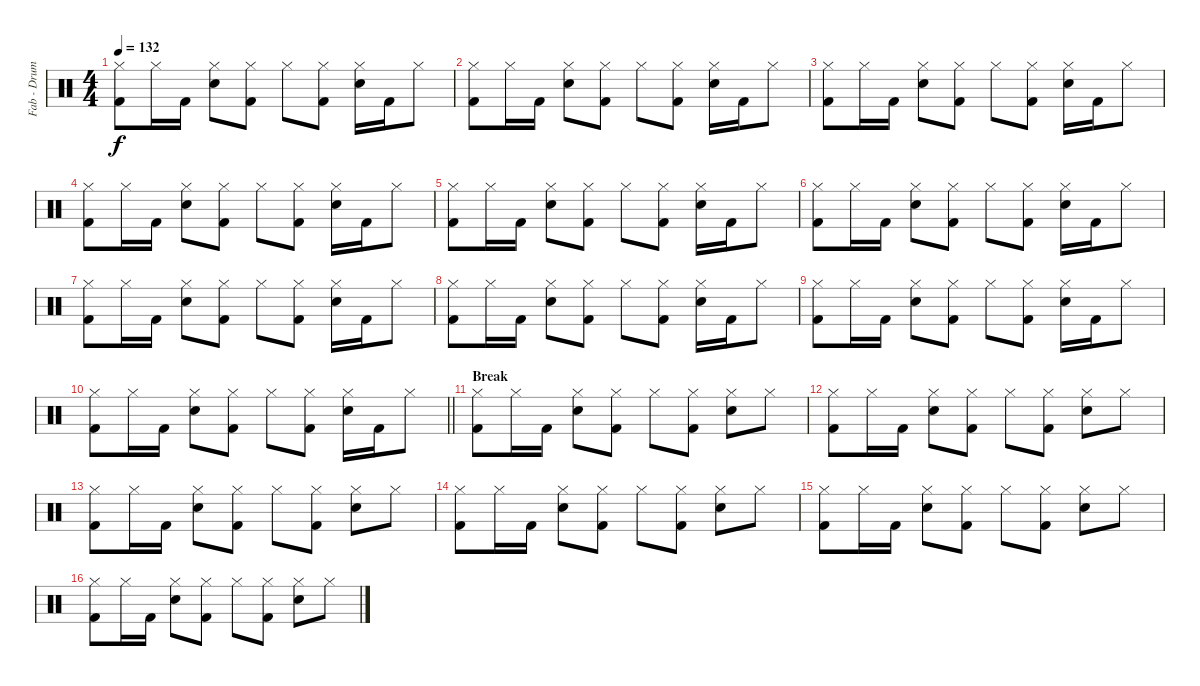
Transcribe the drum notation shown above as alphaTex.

\track ("Fab - Drums MIDI" "Fab - Drum") {instrument percussion}
\staff {score}
\articulation defaults
\ts (4 4)
\tempo 132
\clef neutral
\ks c
("Hi-Hat (closed)" "Kick (hit) 2").8{dy f} "Hi-Hat (closed)".16 "Kick (hit) 2".16 ("Hi-Hat (closed)" "Snare (hit) 2").8 ("Hi-Hat (closed)" "Kick (hit) 2").8 "Hi-Hat (closed)".8 ("Hi-Hat (closed)" "Kick (hit) 2").8 ("Hi-Hat (closed)" "Snare (hit) 2").16 "Kick (hit) 2".16 "Hi-Hat (closed)".8 |
("Hi-Hat (closed)" "Kick (hit) 2").8 "Hi-Hat (closed)".16 "Kick (hit) 2".16 ("Hi-Hat (closed)" "Snare (hit) 2").8 ("Hi-Hat (closed)" "Kick (hit) 2").8 "Hi-Hat (closed)".8 ("Hi-Hat (closed)" "Kick (hit) 2").8 ("Hi-Hat (closed)" "Snare (hit) 2").16 "Kick (hit) 2".16 "Hi-Hat (closed)".8 |
("Hi-Hat (closed)" "Kick (hit) 2").8 "Hi-Hat (closed)".16 "Kick (hit) 2".16 ("Hi-Hat (closed)" "Snare (hit) 2").8 ("Hi-Hat (closed)" "Kick (hit) 2").8 "Hi-Hat (closed)".8 ("Hi-Hat (closed)" "Kick (hit) 2").8 ("Hi-Hat (closed)" "Snare (hit) 2").16 "Kick (hit) 2".16 "Hi-Hat (closed)".8 |
("Hi-Hat (closed)" "Kick (hit) 2").8 "Hi-Hat (closed)".16 "Kick (hit) 2".16 ("Hi-Hat (closed)" "Snare (hit) 2").8 ("Hi-Hat (closed)" "Kick (hit) 2").8 "Hi-Hat (closed)".8 ("Hi-Hat (closed)" "Kick (hit) 2").8 ("Hi-Hat (closed)" "Snare (hit) 2").16 "Kick (hit) 2".16 "Hi-Hat (closed)".8 |
("Hi-Hat (closed)" "Kick (hit) 2").8 "Hi-Hat (closed)".16 "Kick (hit) 2".16 ("Hi-Hat (closed)" "Snare (hit) 2").8 ("Hi-Hat (closed)" "Kick (hit) 2").8 "Hi-Hat (closed)".8 ("Hi-Hat (closed)" "Kick (hit) 2").8 ("Hi-Hat (closed)" "Snare (hit) 2").16 "Kick (hit) 2".16 "Hi-Hat (closed)".8 |
("Hi-Hat (closed)" "Kick (hit) 2").8 "Hi-Hat (closed)".16 "Kick (hit) 2".16 ("Hi-Hat (closed)" "Snare (hit) 2").8 ("Hi-Hat (closed)" "Kick (hit) 2").8 "Hi-Hat (closed)".8 ("Hi-Hat (closed)" "Kick (hit) 2").8 ("Hi-Hat (closed)" "Snare (hit) 2").16 "Kick (hit) 2".16 "Hi-Hat (closed)".8 |
("Hi-Hat (closed)" "Kick (hit) 2").8 "Hi-Hat (closed)".16 "Kick (hit) 2".16 ("Hi-Hat (closed)" "Snare (hit) 2").8 ("Hi-Hat (closed)" "Kick (hit) 2").8 "Hi-Hat (closed)".8 ("Hi-Hat (closed)" "Kick (hit) 2").8 ("Hi-Hat (closed)" "Snare (hit) 2").16 "Kick (hit) 2".16 "Hi-Hat (closed)".8 |
("Hi-Hat (closed)" "Kick (hit) 2").8 "Hi-Hat (closed)".16 "Kick (hit) 2".16 ("Hi-Hat (closed)" "Snare (hit) 2").8 ("Hi-Hat (closed)" "Kick (hit) 2").8 "Hi-Hat (closed)".8 ("Hi-Hat (closed)" "Kick (hit) 2").8 ("Hi-Hat (closed)" "Snare (hit) 2").16 "Kick (hit) 2".16 "Hi-Hat (closed)".8 |
("Hi-Hat (closed)" "Kick (hit) 2").8 "Hi-Hat (closed)".16 "Kick (hit) 2".16 ("Hi-Hat (closed)" "Snare (hit) 2").8 ("Hi-Hat (closed)" "Kick (hit) 2").8 "Hi-Hat (closed)".8 ("Hi-Hat (closed)" "Kick (hit) 2").8 ("Hi-Hat (closed)" "Snare (hit) 2").16 "Kick (hit) 2".16 "Hi-Hat (closed)".8 |
\barLineRight lightlight
("Hi-Hat (closed)" "Kick (hit) 2").8 "Hi-Hat (closed)".16 "Kick (hit) 2".16 ("Hi-Hat (closed)" "Snare (hit) 2").8 ("Hi-Hat (closed)" "Kick (hit) 2").8 "Hi-Hat (closed)".8 ("Hi-Hat (closed)" "Kick (hit) 2").8 ("Hi-Hat (closed)" "Snare (hit) 2").16 "Kick (hit) 2".16 "Hi-Hat (closed)".8 |
\section ("" "Break")
("Hi-Hat (closed)" "Kick (hit) 2").8 "Hi-Hat (closed)".16 "Kick (hit) 2".16 ("Hi-Hat (closed)" "Snare (hit) 2").8 ("Hi-Hat (closed)" "Kick (hit) 2").8 "Hi-Hat (closed)".8 ("Hi-Hat (closed)" "Kick (hit) 2").8 ("Hi-Hat (closed)" "Snare (hit) 2").8 "Hi-Hat (closed)".8 |
("Hi-Hat (closed)" "Kick (hit) 2").8 "Hi-Hat (closed)".16 "Kick (hit) 2".16 ("Hi-Hat (closed)" "Snare (hit) 2").8 ("Hi-Hat (closed)" "Kick (hit) 2").8 "Hi-Hat (closed)".8 ("Hi-Hat (closed)" "Kick (hit) 2").8 ("Hi-Hat (closed)" "Snare (hit) 2").8 "Hi-Hat (closed)".8 |
("Hi-Hat (closed)" "Kick (hit) 2").8 "Hi-Hat (closed)".16 "Kick (hit) 2".16 ("Hi-Hat (closed)" "Snare (hit) 2").8 ("Hi-Hat (closed)" "Kick (hit) 2").8 "Hi-Hat (closed)".8 ("Hi-Hat (closed)" "Kick (hit) 2").8 ("Hi-Hat (closed)" "Snare (hit) 2").8 "Hi-Hat (closed)".8 |
("Hi-Hat (closed)" "Kick (hit) 2").8 "Hi-Hat (closed)".16 "Kick (hit) 2".16 ("Hi-Hat (closed)" "Snare (hit) 2").8 ("Hi-Hat (closed)" "Kick (hit) 2").8 "Hi-Hat (closed)".8 ("Hi-Hat (closed)" "Kick (hit) 2").8 ("Hi-Hat (closed)" "Snare (hit) 2").8 "Hi-Hat (closed)".8 |
("Hi-Hat (closed)" "Kick (hit) 2").8 "Hi-Hat (closed)".16 "Kick (hit) 2".16 ("Hi-Hat (closed)" "Snare (hit) 2").8 ("Hi-Hat (closed)" "Kick (hit) 2").8 "Hi-Hat (closed)".8 ("Hi-Hat (closed)" "Kick (hit) 2").8 ("Hi-Hat (closed)" "Snare (hit) 2").8 "Hi-Hat (closed)".8 |
("Hi-Hat (closed)" "Kick (hit) 2").8 "Hi-Hat (closed)".16 "Kick (hit) 2".16 ("Hi-Hat (closed)" "Snare (hit) 2").8 ("Hi-Hat (closed)" "Kick (hit) 2").8 "Hi-Hat (closed)".8 ("Hi-Hat (closed)" "Kick (hit) 2").8 ("Hi-Hat (closed)" "Snare (hit) 2").8 "Hi-Hat (closed)".8
